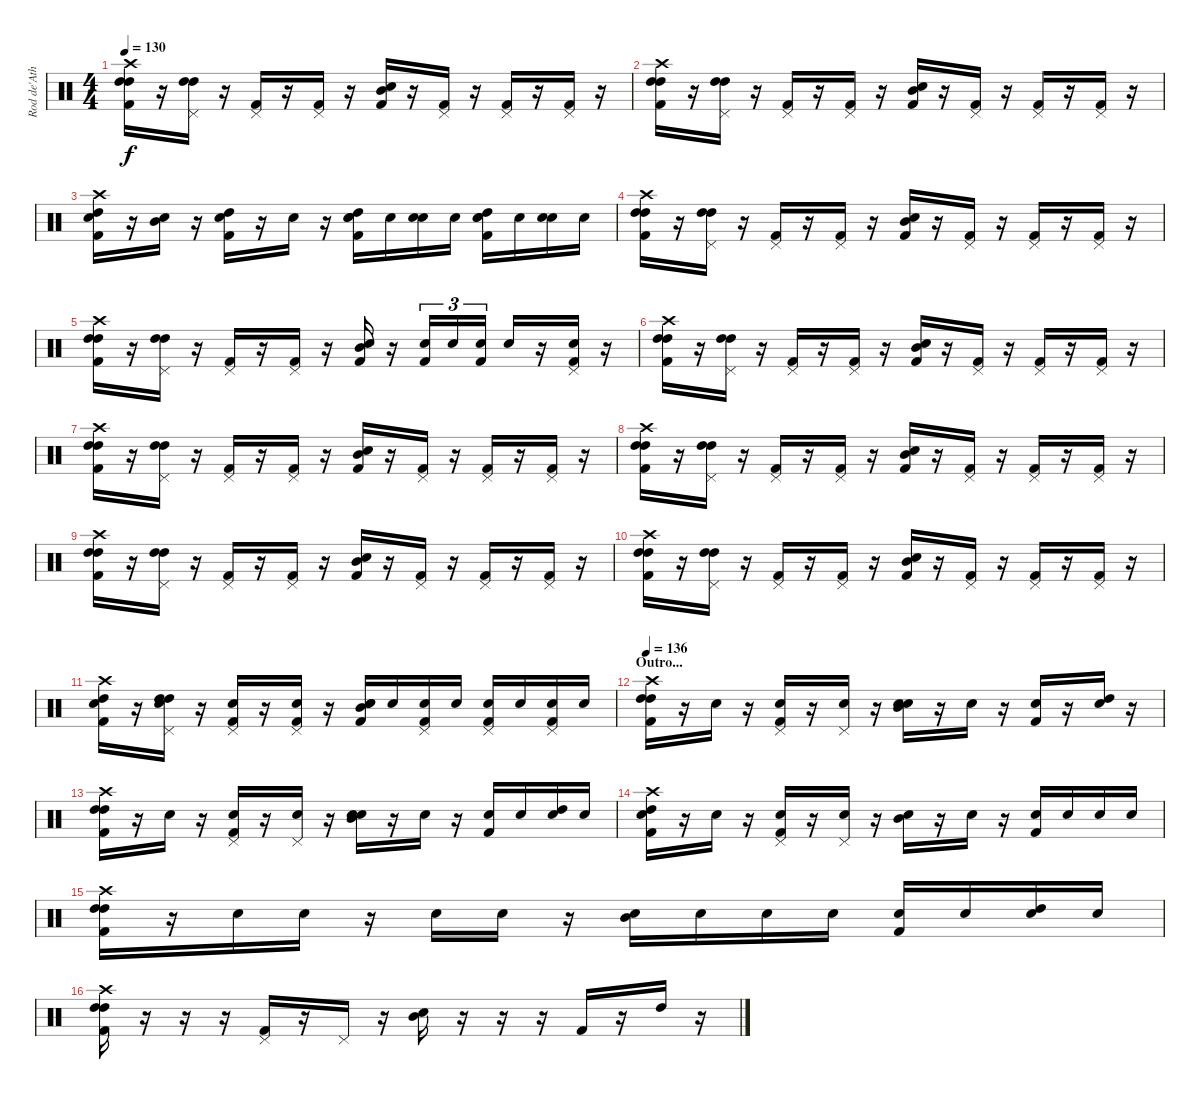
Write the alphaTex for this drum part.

\track ("Rod de'Ath" "Rod de'Ath") {instrument percussion}
\staff {score}
\articulation defaults
\ts (4 4)
\tempo 130
\clef neutral
\ks c
("Crash high (hit)" "High Tom (hit)" "High Tom (hit)" "Kick (hit) 2").16{dy f} r.16 ("Pedal Hi-Hat (hit)" "High Tom (hit)" "High Tom (hit)").16 r.16 ("Pedal Hi-Hat (hit)" "Kick (hit) 2").16 r.16 ("Pedal Hi-Hat (hit)" "Kick (hit) 2").16 r.16 ("Snare (hit) 2" "Mid Tom (hit)" "Kick (hit) 2").16 r.16 ("Pedal Hi-Hat (hit)" "Kick (hit) 2").16 r.16 ("Pedal Hi-Hat (hit)" "Kick (hit) 2").16 r.16 ("Pedal Hi-Hat (hit)" "Kick (hit) 2").16 r.16 |
("Crash high (hit)" "High Tom (hit)" "High Tom (hit)" "Kick (hit) 2").16 r.16 ("Pedal Hi-Hat (hit)" "High Tom (hit)" "High Tom (hit)").16 r.16 ("Pedal Hi-Hat (hit)" "Kick (hit) 2").16 r.16 ("Pedal Hi-Hat (hit)" "Kick (hit) 2").16 r.16 ("Snare (hit) 2" "Mid Tom (hit)" "Kick (hit) 2").16 r.16 ("Pedal Hi-Hat (hit)" "Kick (hit) 2").16 r.16 ("Pedal Hi-Hat (hit)" "Kick (hit) 2").16 r.16 ("Pedal Hi-Hat (hit)" "Kick (hit) 2").16 r.16 |
("Crash high (hit)" "Snare (hit) 2" "High Tom (hit)" "Kick (hit) 2").16 r.16 ("Snare (hit) 2" "Mid Tom (hit)").16 r.16 ("Snare (hit) 2" "High Tom (hit)" "Kick (hit) 2").16 r.16 "Snare (hit) 2".16 r.16 ("Snare (hit) 2" "High Tom (hit)" "Electric Snare (hit)" "Kick (hit) 2").16 "Electric Snare (hit)".16 ("Snare (hit) 2" "Electric Snare (hit)").16 "Electric Snare (hit)".16 ("Snare (hit) 2" "High Tom (hit)" "Electric Snare (hit)" "Kick (hit) 2").16 "Electric Snare (hit)".16 ("Snare (hit) 2" "Electric Snare (hit)").16 "Electric Snare (hit)".16 |
("Crash high (hit)" "High Tom (hit)" "High Tom (hit)" "Kick (hit) 2").16 r.16 ("Pedal Hi-Hat (hit)" "High Tom (hit)" "High Tom (hit)").16 r.16 ("Pedal Hi-Hat (hit)" "Kick (hit) 2").16 r.16 ("Pedal Hi-Hat (hit)" "Kick (hit) 2").16 r.16 ("Snare (hit) 2" "Mid Tom (hit)" "Kick (hit) 2").16 r.16 ("Pedal Hi-Hat (hit)" "Kick (hit) 2").16 r.16 ("Pedal Hi-Hat (hit)" "Kick (hit) 2").16 r.16 ("Pedal Hi-Hat (hit)" "Kick (hit) 2").16 r.16 |
("Crash high (hit)" "High Tom (hit)" "High Tom (hit)" "Kick (hit) 2").16 r.16 ("Pedal Hi-Hat (hit)" "High Tom (hit)" "High Tom (hit)").16 r.16 ("Pedal Hi-Hat (hit)" "Kick (hit) 2").16 r.16 ("Pedal Hi-Hat (hit)" "Kick (hit) 2").16 r.16 ("Snare (hit) 2" "Mid Tom (hit)" "Kick (hit) 2").16 r.16 ("Electric Snare (hit)" "Kick (hit) 2").16{tu (3 2)} "Electric Snare (hit)".16{tu (3 2)} ("Electric Snare (hit)" "Kick (hit) 2").16{tu (3 2)} "Electric Snare (hit)".16 r.16 ("Electric Snare (hit)" "Pedal Hi-Hat (hit)" "Kick (hit) 2").16 r.16 |
("Crash high (hit)" "High Tom (hit)" "High Tom (hit)" "Kick (hit) 2").16 r.16 ("Pedal Hi-Hat (hit)" "High Tom (hit)" "High Tom (hit)").16 r.16 ("Pedal Hi-Hat (hit)" "Kick (hit) 2").16 r.16 ("Pedal Hi-Hat (hit)" "Kick (hit) 2").16 r.16 ("Snare (hit) 2" "Mid Tom (hit)" "Kick (hit) 2").16 r.16 ("Pedal Hi-Hat (hit)" "Kick (hit) 2").16 r.16 ("Pedal Hi-Hat (hit)" "Kick (hit) 2").16 r.16 ("Pedal Hi-Hat (hit)" "Kick (hit) 2").16 r.16 |
("Crash high (hit)" "High Tom (hit)" "High Tom (hit)" "Kick (hit) 2").16 r.16 ("Pedal Hi-Hat (hit)" "High Tom (hit)" "High Tom (hit)").16 r.16 ("Pedal Hi-Hat (hit)" "Kick (hit) 2").16 r.16 ("Pedal Hi-Hat (hit)" "Kick (hit) 2").16 r.16 ("Snare (hit) 2" "Mid Tom (hit)" "Kick (hit) 2").16 r.16 ("Pedal Hi-Hat (hit)" "Kick (hit) 2").16 r.16 ("Pedal Hi-Hat (hit)" "Kick (hit) 2").16 r.16 ("Pedal Hi-Hat (hit)" "Kick (hit) 2").16 r.16 |
("Crash high (hit)" "High Tom (hit)" "High Tom (hit)" "Kick (hit) 2").16 r.16 ("Pedal Hi-Hat (hit)" "High Tom (hit)" "High Tom (hit)").16 r.16 ("Pedal Hi-Hat (hit)" "Kick (hit) 2").16 r.16 ("Pedal Hi-Hat (hit)" "Kick (hit) 2").16 r.16 ("Snare (hit) 2" "Mid Tom (hit)" "Kick (hit) 2").16 r.16 ("Pedal Hi-Hat (hit)" "Kick (hit) 2").16 r.16 ("Pedal Hi-Hat (hit)" "Kick (hit) 2").16 r.16 ("Pedal Hi-Hat (hit)" "Kick (hit) 2").16 r.16 |
("Crash high (hit)" "High Tom (hit)" "High Tom (hit)" "Kick (hit) 2").16 r.16 ("Pedal Hi-Hat (hit)" "High Tom (hit)" "High Tom (hit)").16 r.16 ("Pedal Hi-Hat (hit)" "Kick (hit) 2").16 r.16 ("Pedal Hi-Hat (hit)" "Kick (hit) 2").16 r.16 ("Snare (hit) 2" "Mid Tom (hit)" "Kick (hit) 2").16 r.16 ("Pedal Hi-Hat (hit)" "Kick (hit) 2").16 r.16 ("Pedal Hi-Hat (hit)" "Kick (hit) 2").16 r.16 ("Pedal Hi-Hat (hit)" "Kick (hit) 2").16 r.16 |
("Crash high (hit)" "High Tom (hit)" "High Tom (hit)" "Kick (hit) 2").16 r.16 ("Pedal Hi-Hat (hit)" "High Tom (hit)" "High Tom (hit)").16 r.16 ("Pedal Hi-Hat (hit)" "Kick (hit) 2").16 r.16 ("Pedal Hi-Hat (hit)" "Kick (hit) 2").16 r.16 ("Snare (hit) 2" "Mid Tom (hit)" "Kick (hit) 2").16 r.16 ("Pedal Hi-Hat (hit)" "Kick (hit) 2").16 r.16 ("Pedal Hi-Hat (hit)" "Kick (hit) 2").16 r.16 ("Pedal Hi-Hat (hit)" "Kick (hit) 2").16 r.16 |
("Crash high (hit)" "Electric Snare (hit)" "High Tom (hit)" "Kick (hit) 2").16 r.16 ("Electric Snare (hit)" "Pedal Hi-Hat (hit)" "High Tom (hit)" "High Tom (hit)").16 r.16 ("Electric Snare (hit)" "Pedal Hi-Hat (hit)" "Kick (hit) 2").16 r.16 ("Electric Snare (hit)" "Pedal Hi-Hat (hit)" "Kick (hit) 2").16 r.16 ("Snare (hit) 2" "Electric Snare (hit)" "Mid Tom (hit)" "Kick (hit) 2").16 "Electric Snare (hit)".16 ("Electric Snare (hit)" "Pedal Hi-Hat (hit)" "Kick (hit) 2").16 "Electric Snare (hit)".16 ("Electric Snare (hit)" "Pedal Hi-Hat (hit)" "Kick (hit) 2").16 "Electric Snare (hit)".16 ("Electric Snare (hit)" "Pedal Hi-Hat (hit)" "Kick (hit) 2").16 "Electric Snare (hit)".16 |
\section ("" "Outro...")
\tempo 136
("Crash high (hit)" "High Tom (hit)" "High Tom (hit)" "Kick (hit) 2").16 r.16 "Electric Snare (hit)".16 r.16 ("Pedal Hi-Hat (hit)" "Snare (hit) 2" "Kick (hit) 2").16 r.16 ("Pedal Hi-Hat (hit)" "Electric Snare (hit)").16 r.16 ("Electric Snare (hit)" "Mid Tom (hit)" "Electric Snare (hit)").16 r.16 "Electric Snare (hit)".16 r.16 ("Snare (hit) 2" "Kick (hit) 2").16 r.16 ("High Tom (hit)" "Electric Snare (hit)").16 r.16 |
("Crash high (hit)" "High Tom (hit)" "High Tom (hit)" "Kick (hit) 2").16 r.16 "Electric Snare (hit)".16 r.16 ("Pedal Hi-Hat (hit)" "Snare (hit) 2" "Kick (hit) 2").16 r.16 ("Pedal Hi-Hat (hit)" "Electric Snare (hit)").16 r.16 ("Electric Snare (hit)" "Mid Tom (hit)" "Electric Snare (hit)").16 r.16 "Electric Snare (hit)".16 r.16 ("Electric Snare (hit)" "Kick (hit) 2").16 "Electric Snare (hit)".16 ("High Tom (hit)" "Electric Snare (hit)").16 "Electric Snare (hit)".16 |
("Crash high (hit)" "Electric Snare (hit)" "High Tom (hit)" "Kick (hit) 2").16 r.16 "Electric Snare (hit)".16 r.16 ("Electric Snare (hit)" "Pedal Hi-Hat (hit)" "Kick (hit) 2").16 r.16 ("Electric Snare (hit)" "Pedal Hi-Hat (hit)").16 r.16 ("Electric Snare (hit)" "Mid Tom (hit)").16 r.16 "Electric Snare (hit)".16 r.16 ("Electric Snare (hit)" "Kick (hit) 2").16 "Electric Snare (hit)".16 "Electric Snare (hit)".16 "Electric Snare (hit)".16 |
("Crash high (hit)" "High Tom (hit)" "High Tom (hit)" "Kick (hit) 2").16 r.16 "Electric Snare (hit)".16 "Electric Snare (hit)".16 r.16 "Electric Snare (hit)".16 "Electric Snare (hit)".16 r.16 ("Electric Snare (hit)" "Mid Tom (hit)").16 "Electric Snare (hit)".16 "Electric Snare (hit)".16 "Electric Snare (hit)".16 ("Electric Snare (hit)" "Kick (hit) 2").16 "Electric Snare (hit)".16 ("Electric Snare (hit)" "High Tom (hit)").16 "Electric Snare (hit)".16 |
("Crash high (hit)" "High Tom (hit)" "High Tom (hit)" "Kick (hit) 2").16 r.16 r.16 r.16 ("Pedal Hi-Hat (hit)" "Kick (hit) 2").16 r.16 "Pedal Hi-Hat (hit)".16 r.16 ("Electric Snare (hit)" "Mid Tom (hit)").16 r.16 r.16 r.16 "Kick (hit) 2".16 r.16 "High Tom (hit)".16 r.16
